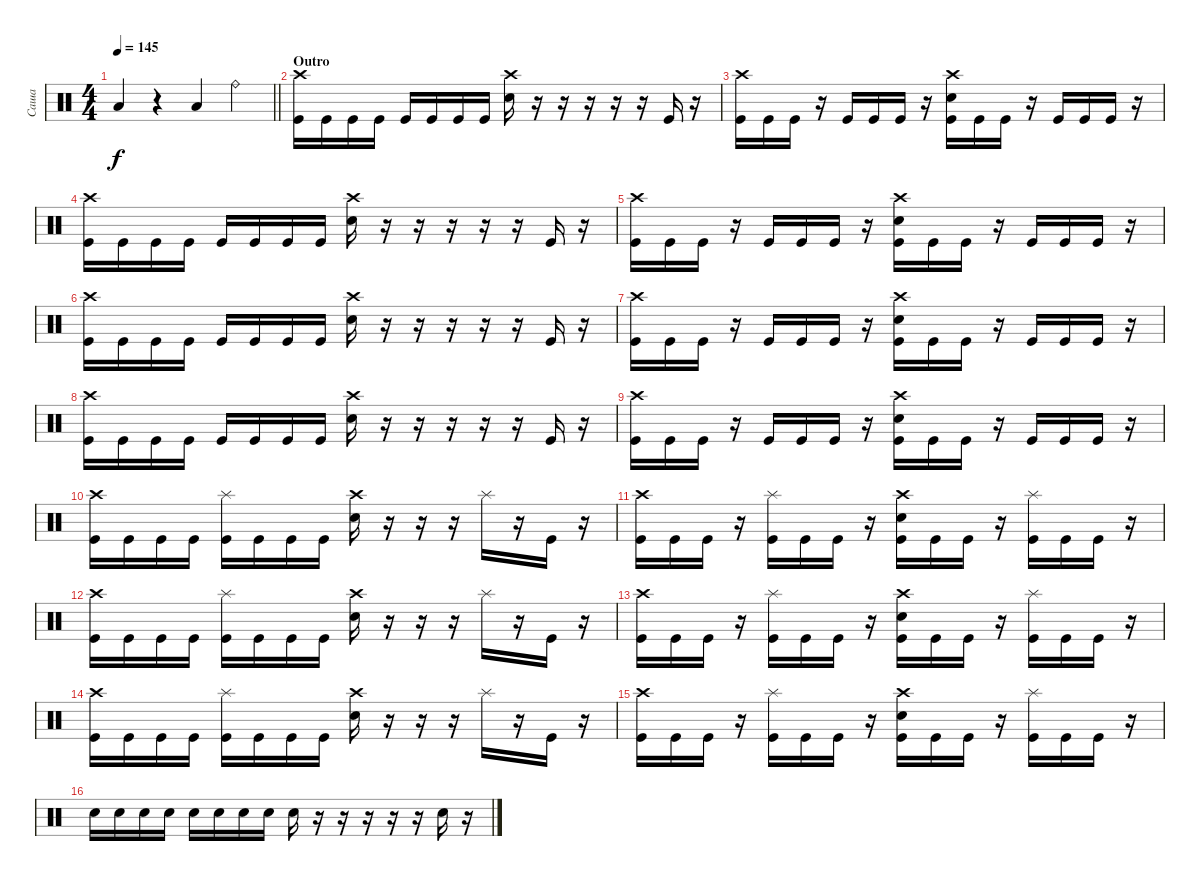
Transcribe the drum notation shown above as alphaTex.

\track ("Саша" "Саша") {instrument percussion}
\staff {score}
\articulation defaults
\ts (4 4)
\tempo 145
\clef neutral
\barLineRight lightlight
\ks c "Low Floor Tom (hit)".4{dy f}
r.4 "Low Floor Tom (hit)".4 "Ride (bell)".4 |
\section ("" "Outro")
("Crash high (hit)" "Kick (hit)").16 "Kick (hit)".16 "Kick (hit)".16 "Kick (hit)".16 "Kick (hit)".16 "Kick (hit)".16 "Kick (hit)".16 "Kick (hit)".16 ("Crash high (hit)" "Electric Snare (hit)").16 r.16 r.16 r.16 r.16 r.16 "Kick (hit)".16 r.16 |
("Crash high (hit)" "Kick (hit)").16 "Kick (hit)".16 "Kick (hit)".16 r.16 "Kick (hit)".16 "Kick (hit)".16 "Kick (hit)".16 r.16 ("Crash high (hit)" "Electric Snare (hit)" "Kick (hit)").16 "Kick (hit)".16 "Kick (hit)".16 r.16 "Kick (hit)".16 "Kick (hit)".16 "Kick (hit)".16 r.16 |
("Crash high (hit)" "Kick (hit)").16 "Kick (hit)".16 "Kick (hit)".16 "Kick (hit)".16 "Kick (hit)".16 "Kick (hit)".16 "Kick (hit)".16 "Kick (hit)".16 ("Crash high (hit)" "Electric Snare (hit)").16 r.16 r.16 r.16 r.16 r.16 "Kick (hit)".16 r.16 |
("Crash high (hit)" "Kick (hit)").16 "Kick (hit)".16 "Kick (hit)".16 r.16 "Kick (hit)".16 "Kick (hit)".16 "Kick (hit)".16 r.16 ("Crash high (hit)" "Electric Snare (hit)" "Kick (hit)").16 "Kick (hit)".16 "Kick (hit)".16 r.16 "Kick (hit)".16 "Kick (hit)".16 "Kick (hit)".16 r.16 |
("Crash high (hit)" "Kick (hit)").16 "Kick (hit)".16 "Kick (hit)".16 "Kick (hit)".16 "Kick (hit)".16 "Kick (hit)".16 "Kick (hit)".16 "Kick (hit)".16 ("Crash high (hit)" "Electric Snare (hit)").16 r.16 r.16 r.16 r.16 r.16 "Kick (hit)".16 r.16 |
("Crash high (hit)" "Kick (hit)").16 "Kick (hit)".16 "Kick (hit)".16 r.16 "Kick (hit)".16 "Kick (hit)".16 "Kick (hit)".16 r.16 ("Crash high (hit)" "Electric Snare (hit)" "Kick (hit)").16 "Kick (hit)".16 "Kick (hit)".16 r.16 "Kick (hit)".16 "Kick (hit)".16 "Kick (hit)".16 r.16 |
("Crash high (hit)" "Kick (hit)").16 "Kick (hit)".16 "Kick (hit)".16 "Kick (hit)".16 "Kick (hit)".16 "Kick (hit)".16 "Kick (hit)".16 "Kick (hit)".16 ("Crash high (hit)" "Electric Snare (hit)").16 r.16 r.16 r.16 r.16 r.16 "Kick (hit)".16 r.16 |
("Crash high (hit)" "Kick (hit)").16 "Kick (hit)".16 "Kick (hit)".16 r.16 "Kick (hit)".16 "Kick (hit)".16 "Kick (hit)".16 r.16 ("Crash high (hit)" "Electric Snare (hit)" "Kick (hit)").16 "Kick (hit)".16 "Kick (hit)".16 r.16 "Kick (hit)".16 "Kick (hit)".16 "Kick (hit)".16 r.16 |
("Crash high (hit)" "Kick (hit)").16 "Kick (hit)".16 "Kick (hit)".16 "Kick (hit)".16 ("Splash (hit)" "Kick (hit)").16 "Kick (hit)".16 "Kick (hit)".16 "Kick (hit)".16 ("Crash high (hit)" "Electric Snare (hit)").16 r.16 r.16 r.16 "Splash (hit)".16 r.16 "Kick (hit)".16 r.16 |
("Crash high (hit)" "Kick (hit)").16 "Kick (hit)".16 "Kick (hit)".16 r.16 ("Splash (hit)" "Kick (hit)").16 "Kick (hit)".16 "Kick (hit)".16 r.16 ("Crash high (hit)" "Electric Snare (hit)" "Kick (hit)").16 "Kick (hit)".16 "Kick (hit)".16 r.16 ("Splash (hit)" "Kick (hit)").16 "Kick (hit)".16 "Kick (hit)".16 r.16 |
("Crash high (hit)" "Kick (hit)").16 "Kick (hit)".16 "Kick (hit)".16 "Kick (hit)".16 ("Splash (hit)" "Kick (hit)").16 "Kick (hit)".16 "Kick (hit)".16 "Kick (hit)".16 ("Crash high (hit)" "Electric Snare (hit)").16 r.16 r.16 r.16 "Splash (hit)".16 r.16 "Kick (hit)".16 r.16 |
("Crash high (hit)" "Kick (hit)").16 "Kick (hit)".16 "Kick (hit)".16 r.16 ("Splash (hit)" "Kick (hit)").16 "Kick (hit)".16 "Kick (hit)".16 r.16 ("Crash high (hit)" "Electric Snare (hit)" "Kick (hit)").16 "Kick (hit)".16 "Kick (hit)".16 r.16 ("Splash (hit)" "Kick (hit)").16 "Kick (hit)".16 "Kick (hit)".16 r.16 |
("Crash high (hit)" "Kick (hit)").16 "Kick (hit)".16 "Kick (hit)".16 "Kick (hit)".16 ("Splash (hit)" "Kick (hit)").16 "Kick (hit)".16 "Kick (hit)".16 "Kick (hit)".16 ("Crash high (hit)" "Electric Snare (hit)").16 r.16 r.16 r.16 "Splash (hit)".16 r.16 "Kick (hit)".16 r.16 |
("Crash high (hit)" "Kick (hit)").16 "Kick (hit)".16 "Kick (hit)".16 r.16 ("Splash (hit)" "Kick (hit)").16 "Kick (hit)".16 "Kick (hit)".16 r.16 ("Crash high (hit)" "Electric Snare (hit)" "Kick (hit)").16 "Kick (hit)".16 "Kick (hit)".16 r.16 ("Splash (hit)" "Kick (hit)").16 "Kick (hit)".16 "Kick (hit)".16 r.16 |
"Electric Snare (hit)".16 "Electric Snare (hit)".16 "Electric Snare (hit)".16 "Electric Snare (hit)".16 "Electric Snare (hit)".16 "Electric Snare (hit)".16 "Electric Snare (hit)".16 "Electric Snare (hit)".16 "Electric Snare (hit)".16 r.16 r.16 r.16 r.16 r.16 "Electric Snare (hit)".16 r.16
